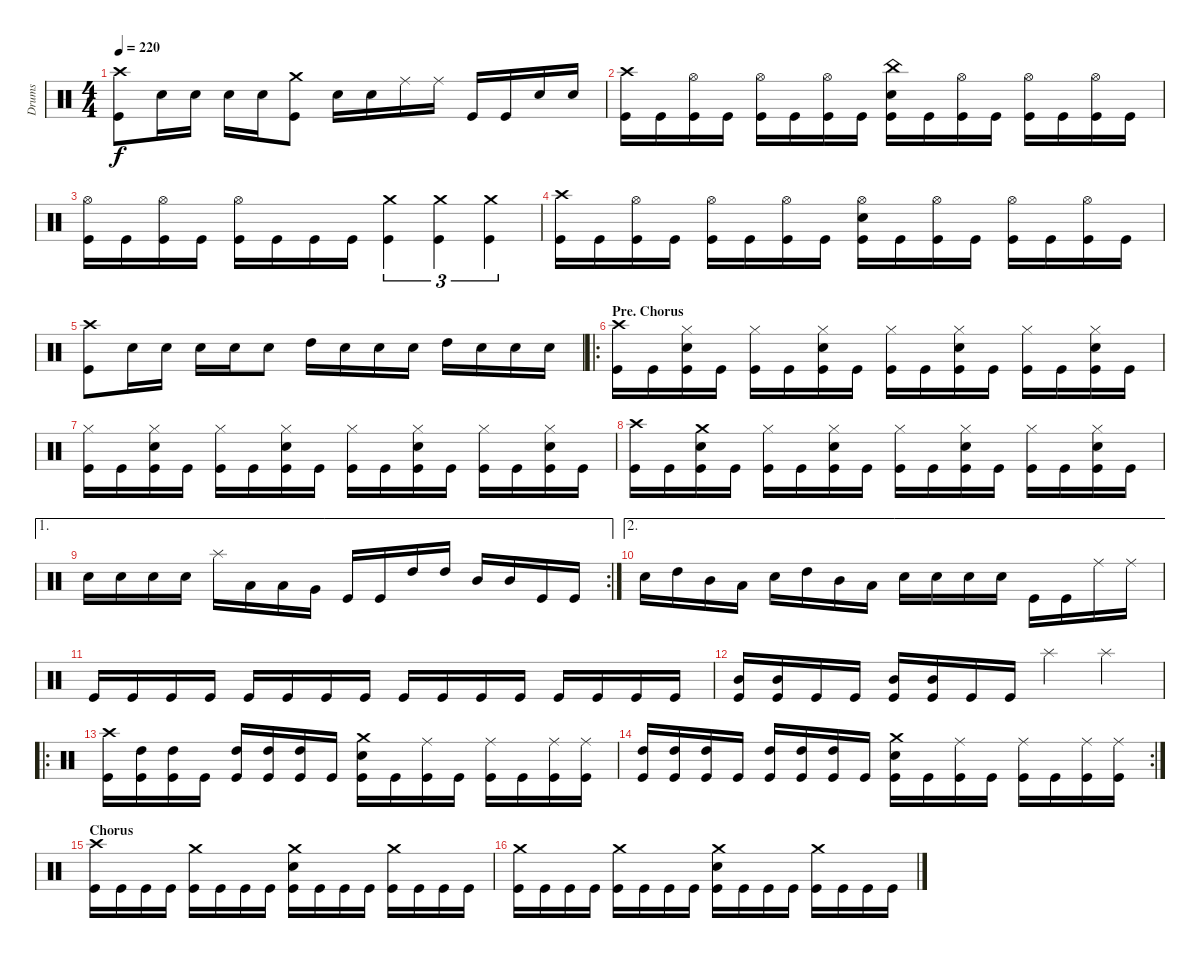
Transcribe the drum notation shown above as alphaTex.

\track ("Drums" "Drums") {instrument percussion}
\staff {score}
\articulation defaults
\ts (4 4)
\tempo 220
\clef neutral
\ks c
("Crash high (hit)" "Kick (hit)").8{dy f} "Snare (hit) 2".16 "Snare (hit) 2".16 "Snare (hit) 2".16 "Snare (hit) 2".16 ("Crash medium (hit)" "Kick (hit)").8 "Snare (hit) 2".16 "Snare (hit) 2".16 "Ride (middle)".16 "Ride (middle)".16 "Kick (hit)".16 "Kick (hit)".16 "Snare (hit) 2".16 "Snare (hit) 2".16 |
("Crash high (hit)" "Kick (hit)").16 "Kick (hit)".16 ("Hi-Hat (open)" "Kick (hit)").16 "Kick (hit)".16 ("Hi-Hat (open)" "Kick (hit)").16 "Kick (hit)".16 ("Hi-Hat (open)" "Kick (hit)").16 "Kick (hit)".16 ("China (hit)" "Snare (hit) 2" "Kick (hit)").16 "Kick (hit)".16 ("Hi-Hat (open)" "Kick (hit)").16 "Kick (hit)".16 ("Hi-Hat (open)" "Kick (hit)").16 "Kick (hit)".16 ("Hi-Hat (open)" "Kick (hit)").16 "Kick (hit)".16 |
("Hi-Hat (open)" "Kick (hit)").16 "Kick (hit)".16 ("Hi-Hat (open)" "Kick (hit)").16 "Kick (hit)".16 ("Hi-Hat (open)" "Kick (hit)").16 "Kick (hit)".16 "Kick (hit)".16 "Kick (hit)".16 ("Crash medium (hit)" "Kick (hit)").4{tu (3 2)} ("Crash medium (hit)" "Kick (hit)").4{tu (3 2)} ("Crash medium (hit)" "Kick (hit)").4{tu (3 2)} |
("Crash high (hit)" "Kick (hit)").16 "Kick (hit)".16 ("Hi-Hat (open)" "Kick (hit)").16 "Kick (hit)".16 ("Hi-Hat (open)" "Kick (hit)").16 "Kick (hit)".16 ("Hi-Hat (open)" "Kick (hit)").16 "Kick (hit)".16 ("Hi-Hat (open)" "Snare (hit) 2" "Kick (hit)").16 "Kick (hit)".16 ("Hi-Hat (open)" "Kick (hit)").16 "Kick (hit)".16 ("Hi-Hat (open)" "Kick (hit)").16 "Kick (hit)".16 ("Hi-Hat (open)" "Kick (hit)").16 "Kick (hit)".16 |
("Crash high (hit)" "Kick (hit)").8 "Snare (hit) 2".16 "Snare (hit) 2".16 "Snare (hit) 2".16 "Snare (hit) 2".16 "Snare (hit) 2".8 "High Tom (hit)".16 "Snare (hit) 2".16 "Snare (hit) 2".16 "Snare (hit) 2".16 "High Tom (hit)".16 "Snare (hit) 2".16 "Snare (hit) 2".16 "Snare (hit) 2".16 |
\ro
\section ("" "Pre. Chorus")
("Crash high (hit)" "Kick (hit)").16 "Kick (hit)".16 ("Hi-Hat (closed)" "Snare (hit) 2" "Kick (hit)").16 "Kick (hit)".16 ("Hi-Hat (closed)" "Kick (hit)").16 "Kick (hit)".16 ("Hi-Hat (closed)" "Snare (hit) 2" "Kick (hit)").16 "Kick (hit)".16 ("Hi-Hat (closed)" "Kick (hit)").16 "Kick (hit)".16 ("Hi-Hat (closed)" "Snare (hit) 2" "Kick (hit)").16 "Kick (hit)".16 ("Hi-Hat (closed)" "Kick (hit)").16 "Kick (hit)".16 ("Hi-Hat (closed)" "Snare (hit) 2" "Kick (hit)").16 "Kick (hit)".16 |
("Hi-Hat (closed)" "Kick (hit)").16 "Kick (hit)".16 ("Hi-Hat (closed)" "Snare (hit) 2" "Kick (hit)").16 "Kick (hit)".16 ("Hi-Hat (closed)" "Kick (hit)").16 "Kick (hit)".16 ("Hi-Hat (closed)" "Snare (hit) 2" "Kick (hit)").16 "Kick (hit)".16 ("Hi-Hat (closed)" "Kick (hit)").16 "Kick (hit)".16 ("Hi-Hat (closed)" "Snare (hit) 2" "Kick (hit)").16 "Kick (hit)".16 ("Hi-Hat (closed)" "Kick (hit)").16 "Kick (hit)".16 ("Hi-Hat (closed)" "Snare (hit) 2" "Kick (hit)").16 "Kick (hit)".16 |
("Crash high (hit)" "Kick (hit)").16 "Kick (hit)".16 ("Crash medium (hit)" "Snare (hit) 2" "Kick (hit)").16 "Kick (hit)".16 ("Hi-Hat (closed)" "Kick (hit)").16 "Kick (hit)".16 ("Hi-Hat (closed)" "Snare (hit) 2" "Kick (hit)").16 "Kick (hit)".16 ("Hi-Hat (closed)" "Kick (hit)").16 "Kick (hit)".16 ("Hi-Hat (closed)" "Snare (hit) 2" "Kick (hit)").16 "Kick (hit)".16 ("Hi-Hat (closed)" "Kick (hit)").16 "Kick (hit)".16 ("Hi-Hat (closed)" "Snare (hit) 2" "Kick (hit)").16 "Kick (hit)".16 |
\ae 1
\rc 2 "Snare (hit) 2".16 "Snare (hit) 2".16 "Snare (hit) 2".16 "Snare (hit) 2".16 "Splash (hit)".16 "Low Tom (hit)".16 "Low Tom (hit)".16 "Very Low Tom (hit)".16 "Kick (hit)".16 "Kick (hit)".16 "High Tom (hit)".16 "High Tom (hit)".16 "Mid Tom (hit)".16 "Mid Tom (hit)".16 "Kick (hit)".16 "Kick (hit)".16
|
\ae 2 "Snare (hit) 2".16 "High Tom (hit)".16 "Mid Tom (hit)".16 "Low Tom (hit)".16 "Snare (hit) 2".16 "High Tom (hit)".16 "Mid Tom (hit)".16 "Low Tom (hit)".16 "Snare (hit) 2".16 "Snare (hit) 2".16 "Snare (hit) 2".16 "Snare (hit) 2".16 "Kick (hit)".16 "Kick (hit)".16 "Ride (middle)".16 "Ride (middle)".16
|
"Kick (hit)".16 "Kick (hit)".16 "Kick (hit)".16 "Kick (hit)".16 "Kick (hit)".16 "Kick (hit)".16 "Kick (hit)".16 "Kick (hit)".16 "Kick (hit)".16 "Kick (hit)".16 "Kick (hit)".16 "Kick (hit)".16 "Kick (hit)".16 "Kick (hit)".16 "Kick (hit)".16 "Kick (hit)".16 |
("Mid Tom (hit)" "Kick (hit)").16 ("Mid Tom (hit)" "Kick (hit)").16 "Kick (hit)".16 "Kick (hit)".16 ("Mid Tom (hit)" "Kick (hit)").16 ("Mid Tom (hit)" "Kick (hit)").16 "Kick (hit)".16 "Kick (hit)".16 "Splash (hit)".4 "Splash (hit)".4 |
\ro
("Crash high (hit)" "Kick (hit)").16 ("High Tom (hit)" "Kick (hit)").16 ("High Tom (hit)" "Kick (hit)").16 "Kick (hit)".16 ("High Tom (hit)" "Kick (hit)").16 ("High Tom (hit)" "Kick (hit)").16 ("High Tom (hit)" "Kick (hit)").16 "Kick (hit)".16 ("Crash medium (hit)" "Snare (hit) 2" "Kick (hit)").16 "Kick (hit)".16 ("Ride (middle)" "Kick (hit)").16 "Kick (hit)".16 ("Ride (middle)" "Kick (hit)").16 "Kick (hit)".16 ("Ride (middle)" "Kick (hit)").16 ("Ride (middle)" "Kick (hit)").16 |
\rc 2
("High Tom (hit)" "Kick (hit)").16 ("High Tom (hit)" "Kick (hit)").16 ("High Tom (hit)" "Kick (hit)").16 "Kick (hit)".16 ("High Tom (hit)" "Kick (hit)").16 ("High Tom (hit)" "Kick (hit)").16 ("High Tom (hit)" "Kick (hit)").16 "Kick (hit)".16 ("Crash medium (hit)" "Snare (hit) 2" "Kick (hit)").16 "Kick (hit)".16 ("Ride (middle)" "Kick (hit)").16 "Kick (hit)".16 ("Ride (middle)" "Kick (hit)").16 "Kick (hit)".16 ("Ride (middle)" "Kick (hit)").16 ("Ride (middle)" "Kick (hit)").16 |
\section ("" "Chorus")
("Crash high (hit)" "Kick (hit)").16 "Kick (hit)".16 "Kick (hit)".16 "Kick (hit)".16 ("Crash medium (hit)" "Kick (hit)").16 "Kick (hit)".16 "Kick (hit)".16 "Kick (hit)".16 ("Crash medium (hit)" "Snare (hit) 2" "Kick (hit)").16 "Kick (hit)".16 "Kick (hit)".16 "Kick (hit)".16 ("Crash medium (hit)" "Kick (hit)").16 "Kick (hit)".16 "Kick (hit)".16 "Kick (hit)".16 |
("Crash medium (hit)" "Kick (hit)").16 "Kick (hit)".16 "Kick (hit)".16 "Kick (hit)".16 ("Crash medium (hit)" "Kick (hit)").16 "Kick (hit)".16 "Kick (hit)".16 "Kick (hit)".16 ("Crash medium (hit)" "Snare (hit) 2" "Kick (hit)").16 "Kick (hit)".16 "Kick (hit)".16 "Kick (hit)".16 ("Crash medium (hit)" "Kick (hit)").16 "Kick (hit)".16 "Kick (hit)".16 "Kick (hit)".16
